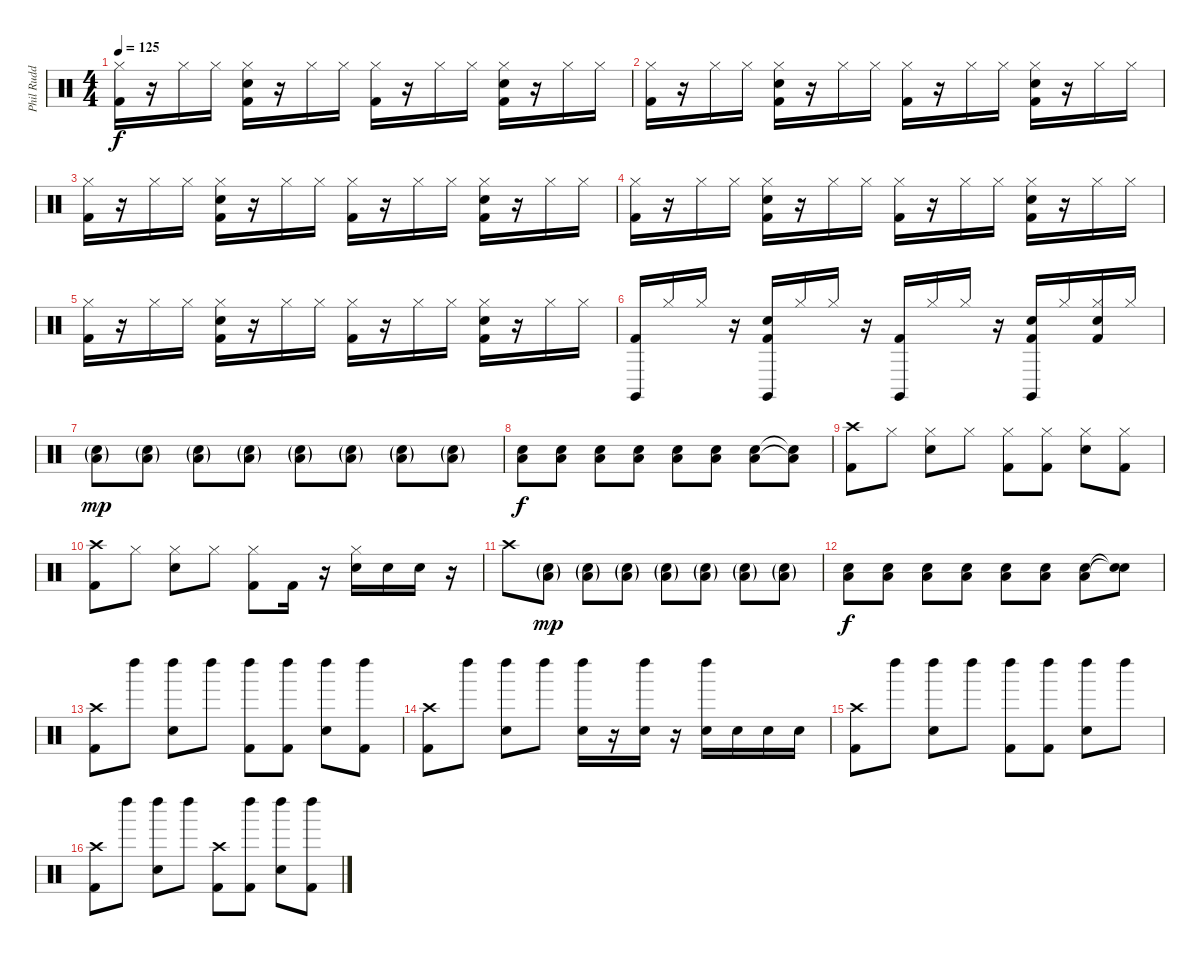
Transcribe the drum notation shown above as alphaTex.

\track ("Phil Rudd" "Phil Rudd") {instrument percussion}
\staff {score}
\articulation defaults
\ts (4 4)
\tempo 125
\clef neutral
\ks c
("Hi-Hat (closed)" "Kick (hit) 2").16{dy f} r.16 "Hi-Hat (closed)".16 "Hi-Hat (closed)".16 ("Hi-Hat (closed)" "Snare (hit) 2" "Kick (hit) 2").16 r.16 "Hi-Hat (closed)".16 "Hi-Hat (closed)".16 ("Hi-Hat (closed)" "Kick (hit) 2").16 r.16 "Hi-Hat (closed)".16 "Hi-Hat (closed)".16 ("Hi-Hat (closed)" "Snare (hit) 2" "Kick (hit) 2").16 r.16 "Hi-Hat (closed)".16 "Hi-Hat (closed)".16 |
("Hi-Hat (closed)" "Kick (hit) 2").16 r.16 "Hi-Hat (closed)".16 "Hi-Hat (closed)".16 ("Hi-Hat (closed)" "Snare (hit) 2" "Kick (hit) 2").16 r.16 "Hi-Hat (closed)".16 "Hi-Hat (closed)".16 ("Hi-Hat (closed)" "Kick (hit) 2").16 r.16 "Hi-Hat (closed)".16 "Hi-Hat (closed)".16 ("Hi-Hat (closed)" "Snare (hit) 2" "Kick (hit) 2").16 r.16 "Hi-Hat (closed)".16 "Hi-Hat (closed)".16 |
("Hi-Hat (closed)" "Kick (hit) 2").16 r.16 "Hi-Hat (closed)".16 "Hi-Hat (closed)".16 ("Hi-Hat (closed)" "Snare (hit) 2" "Kick (hit) 2").16 r.16 "Hi-Hat (closed)".16 "Hi-Hat (closed)".16 ("Hi-Hat (closed)" "Kick (hit) 2").16 r.16 "Hi-Hat (closed)".16 "Hi-Hat (closed)".16 ("Hi-Hat (closed)" "Snare (hit) 2" "Kick (hit) 2").16 r.16 "Hi-Hat (closed)".16 "Hi-Hat (closed)".16 |
("Hi-Hat (closed)" "Kick (hit) 2").16 r.16 "Hi-Hat (closed)".16 "Hi-Hat (closed)".16 ("Hi-Hat (closed)" "Snare (hit) 2" "Kick (hit) 2").16 r.16 "Hi-Hat (closed)".16 "Hi-Hat (closed)".16 ("Hi-Hat (closed)" "Kick (hit) 2").16 r.16 "Hi-Hat (closed)".16 "Hi-Hat (closed)".16 ("Hi-Hat (closed)" "Snare (hit) 2" "Kick (hit) 2").16 r.16 "Hi-Hat (closed)".16 "Hi-Hat (closed)".16 |
("Hi-Hat (closed)" "Kick (hit) 2").16 r.16 "Hi-Hat (closed)".16 "Hi-Hat (closed)".16 ("Hi-Hat (closed)" "Snare (hit) 2" "Kick (hit) 2").16 r.16 "Hi-Hat (closed)".16 "Hi-Hat (closed)".16 ("Hi-Hat (closed)" "Kick (hit) 2").16 r.16 "Hi-Hat (closed)".16 "Hi-Hat (closed)".16 ("Hi-Hat (closed)" "Snare (hit) 2" "Kick (hit) 2").16 r.16 "Hi-Hat (closed)".16 "Hi-Hat (closed)".16 |
("Claves (hit)" "Kick (hit) 2").16 "Hi-Hat (closed)".16 "Hi-Hat (closed)".16 r.16 ("Claves (hit)" "Snare (hit) 2" "Kick (hit) 2").16 "Hi-Hat (closed)".16 "Hi-Hat (closed)".16 r.16 ("Claves (hit)" "Kick (hit) 2").16 "Hi-Hat (closed)".16 "Hi-Hat (closed)".16 r.16 ("Claves (hit)" "Snare (hit) 2" "Kick (hit) 2").16 "Hi-Hat (closed)".16 ("Hi-Hat (closed)" "Snare (hit) 2" "Kick (hit) 2").16 "Hi-Hat (closed)".16 |
("Snare (hit) 2"{g} "Low Tom (hit)"{g}).8{dy mp} ("Snare (hit) 2"{g} "Low Tom (hit)"{g}).8 ("Snare (hit) 2"{g} "Low Tom (hit)"{g}).8 ("Snare (hit) 2"{g} "Low Tom (hit)"{g}).8 ("Snare (hit) 2"{g} "Low Tom (hit)"{g}).8 ("Snare (hit) 2"{g} "Low Tom (hit)"{g}).8 ("Snare (hit) 2"{g} "Low Tom (hit)"{g}).8 ("Snare (hit) 2"{g} "Low Tom (hit)"{g}).8 |
("Snare (hit) 2" "Low Tom (hit)").8{dy f} ("Snare (hit) 2" "Low Tom (hit)").8 ("Snare (hit) 2" "Low Tom (hit)").8 ("Snare (hit) 2" "Low Tom (hit)").8 ("Snare (hit) 2" "Low Tom (hit)").8 ("Snare (hit) 2" "Low Tom (hit)").8 ("Snare (hit) 2" "Low Tom (hit)").8 ("Snare (hit) 2"{t} "Low Tom (hit)"{t}).8 |
("Crash high (hit)" "Kick (hit) 2").8 "Hi-Hat (closed)".8 ("Hi-Hat (closed)" "Snare (hit) 2").8 "Hi-Hat (closed)".8 ("Hi-Hat (closed)" "Kick (hit) 2").8 ("Hi-Hat (closed)" "Kick (hit) 2").8 ("Hi-Hat (closed)" "Snare (hit) 2").8 ("Hi-Hat (closed)" "Kick (hit) 2").8 |
("Crash high (hit)" "Kick (hit) 2").8 "Hi-Hat (closed)".8 ("Hi-Hat (closed)" "Snare (hit) 2").8 "Hi-Hat (closed)".8 ("Hi-Hat (closed)" "Kick (hit) 2").8 "Kick (hit) 2".16 r.16 ("Hi-Hat (closed)" "Snare (hit) 2").16 "Snare (hit) 2".16 "Snare (hit) 2".16 r.16 |
"Crash high (hit)".8 ("Snare (hit) 2"{g} "Low Tom (hit)"{g}).8{dy mp} ("Snare (hit) 2"{g} "Low Tom (hit)"{g}).8 ("Snare (hit) 2"{g} "Low Tom (hit)"{g}).8 ("Snare (hit) 2"{g} "Low Tom (hit)"{g}).8 ("Snare (hit) 2"{g} "Low Tom (hit)"{g}).8 ("Snare (hit) 2"{g} "Low Tom (hit)"{g}).8 ("Snare (hit) 2"{g} "Low Tom (hit)"{g}).8 |
("Snare (hit) 2" "Low Tom (hit)").8{dy f} ("Snare (hit) 2" "Low Tom (hit)").8 ("Snare (hit) 2" "Low Tom (hit)").8 ("Snare (hit) 2" "Low Tom (hit)").8 ("Snare (hit) 2" "Low Tom (hit)").8 ("Snare (hit) 2" "Low Tom (hit)").8 ("Snare (hit) 2" "Low Tom (hit)").8 ("Snare (hit)"{t} "Snare (hit)"{t}).8 |
("Crash high (hit)" "Kick (hit) 2").8 "Left Maraca (hit)".8 ("Left Maraca (hit)" "Snare (hit) 2").8 "Left Maraca (hit)".8 ("Left Maraca (hit)" "Kick (hit) 2").8 ("Left Maraca (hit)" "Kick (hit) 2").8 ("Left Maraca (hit)" "Snare (hit) 2").8 ("Left Maraca (hit)" "Kick (hit) 2").8 |
("Crash high (hit)" "Kick (hit) 2").8 "Left Maraca (hit)".8 ("Left Maraca (hit)" "Snare (hit) 2").8 "Left Maraca (hit)".8 ("Left Maraca (hit)" "Snare (hit) 2").16 r.16 ("Left Maraca (hit)" "Snare (hit) 2").16 r.16 ("Left Maraca (hit)" "Snare (hit) 2").16 "Snare (hit) 2".16 "Snare (hit) 2".16 "Snare (hit) 2".16 |
("Crash high (hit)" "Kick (hit) 2").8 "Left Maraca (hit)".8 ("Left Maraca (hit)" "Snare (hit) 2").8 "Left Maraca (hit)".8 ("Left Maraca (hit)" "Kick (hit) 2").8 ("Left Maraca (hit)" "Kick (hit) 2").8 ("Left Maraca (hit)" "Snare (hit) 2").8 "Left Maraca (hit)".8 |
("Crash high (hit)" "Kick (hit) 2").8 "Left Maraca (hit)".8 ("Left Maraca (hit)" "Snare (hit) 2").8 "Left Maraca (hit)".8 ("Crash high (hit)" "Kick (hit) 2").8 ("Left Maraca (hit)" "Kick (hit) 2").8 ("Left Maraca (hit)" "Snare (hit) 2").8 ("Left Maraca (hit)" "Kick (hit) 2").8
